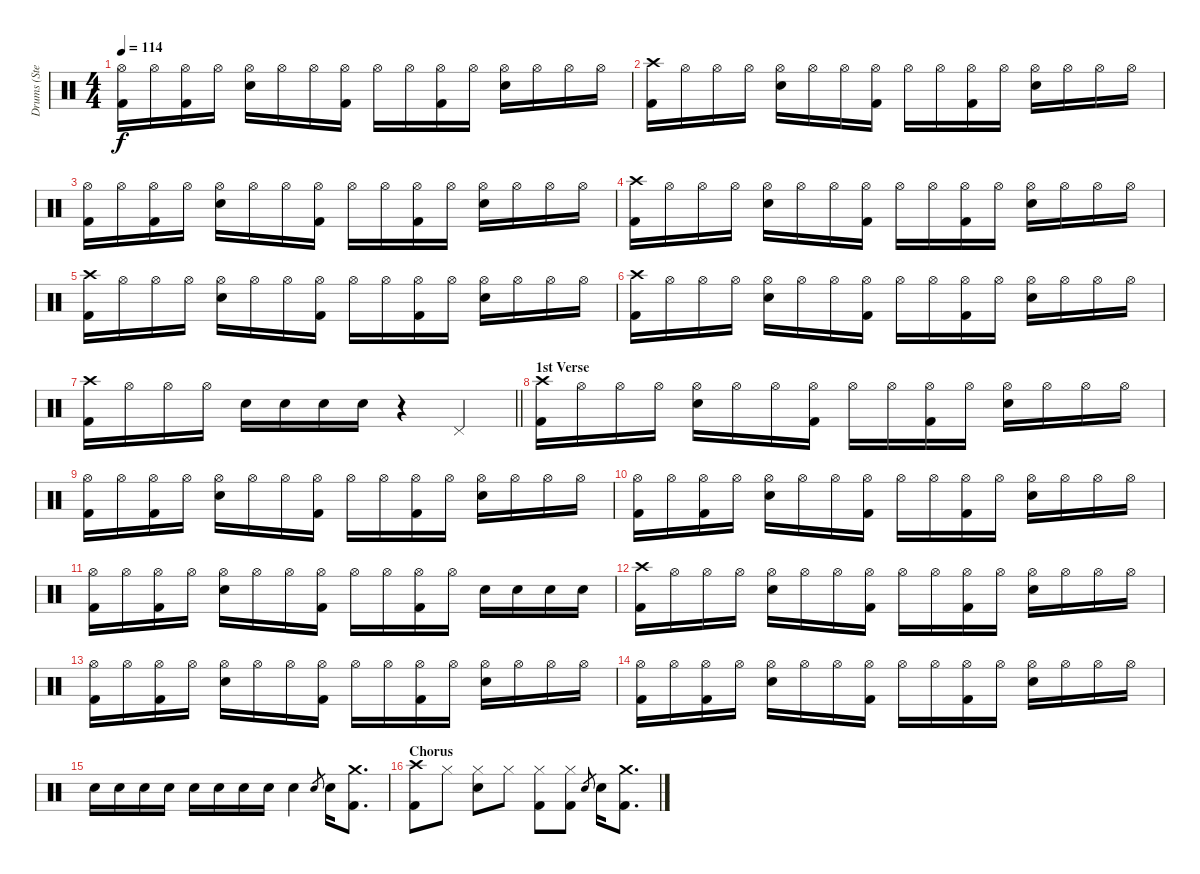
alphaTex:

\track ("Drums (Steven)" "Drums (Ste") {instrument percussion}
\staff {score}
\articulation defaults
\ts (4 4)
\tempo 114
\clef neutral
\ks c
("Hi-Hat (open)" "Kick (hit) 2").16{dy f} "Hi-Hat (open)".16 ("Hi-Hat (open)" "Kick (hit) 2").16 "Hi-Hat (open)".16 ("Hi-Hat (open)" "Snare (hit) 2").16 "Hi-Hat (open)".16 "Hi-Hat (open)".16 ("Hi-Hat (open)" "Kick (hit) 2").16 "Hi-Hat (open)".16 "Hi-Hat (open)".16 ("Hi-Hat (open)" "Kick (hit) 2").16 "Hi-Hat (open)".16 ("Hi-Hat (open)" "Snare (hit) 2").16 "Hi-Hat (open)".16 "Hi-Hat (open)".16 "Hi-Hat (open)".16 |
("Crash high (hit)" "Kick (hit) 2").16 "Hi-Hat (open)".16 "Hi-Hat (open)".16 "Hi-Hat (open)".16 ("Hi-Hat (open)" "Snare (hit) 2").16 "Hi-Hat (open)".16 "Hi-Hat (open)".16 ("Hi-Hat (open)" "Kick (hit) 2").16 "Hi-Hat (open)".16 "Hi-Hat (open)".16 ("Hi-Hat (open)" "Kick (hit) 2").16 "Hi-Hat (open)".16 ("Hi-Hat (open)" "Snare (hit) 2").16 "Hi-Hat (open)".16 "Hi-Hat (open)".16 "Hi-Hat (open)".16 |
("Hi-Hat (open)" "Kick (hit) 2").16 "Hi-Hat (open)".16 ("Hi-Hat (open)" "Kick (hit) 2").16 "Hi-Hat (open)".16 ("Hi-Hat (open)" "Snare (hit) 2").16 "Hi-Hat (open)".16 "Hi-Hat (open)".16 ("Hi-Hat (open)" "Kick (hit) 2").16 "Hi-Hat (open)".16 "Hi-Hat (open)".16 ("Hi-Hat (open)" "Kick (hit) 2").16 "Hi-Hat (open)".16 ("Hi-Hat (open)" "Snare (hit) 2").16 "Hi-Hat (open)".16 "Hi-Hat (open)".16 "Hi-Hat (open)".16 |
("Crash high (hit)" "Kick (hit) 2").16 "Hi-Hat (open)".16 "Hi-Hat (open)".16 "Hi-Hat (open)".16 ("Hi-Hat (open)" "Snare (hit) 2").16 "Hi-Hat (open)".16 "Hi-Hat (open)".16 ("Hi-Hat (open)" "Kick (hit) 2").16 "Hi-Hat (open)".16 "Hi-Hat (open)".16 ("Hi-Hat (open)" "Kick (hit) 2").16 "Hi-Hat (open)".16 ("Hi-Hat (open)" "Snare (hit) 2").16 "Hi-Hat (open)".16 "Hi-Hat (open)".16 "Hi-Hat (open)".16 |
("Crash high (hit)" "Kick (hit) 2").16 "Hi-Hat (open)".16 "Hi-Hat (open)".16 "Hi-Hat (open)".16 ("Hi-Hat (open)" "Snare (hit) 2").16 "Hi-Hat (open)".16 "Hi-Hat (open)".16 ("Hi-Hat (open)" "Kick (hit) 2").16 "Hi-Hat (open)".16 "Hi-Hat (open)".16 ("Hi-Hat (open)" "Kick (hit) 2").16 "Hi-Hat (open)".16 ("Hi-Hat (open)" "Snare (hit) 2").16 "Hi-Hat (open)".16 "Hi-Hat (open)".16 "Hi-Hat (open)".16 |
("Crash high (hit)" "Kick (hit) 2").16 "Hi-Hat (open)".16 "Hi-Hat (open)".16 "Hi-Hat (open)".16 ("Hi-Hat (open)" "Snare (hit) 2").16 "Hi-Hat (open)".16 "Hi-Hat (open)".16 ("Hi-Hat (open)" "Kick (hit) 2").16 "Hi-Hat (open)".16 "Hi-Hat (open)".16 ("Hi-Hat (open)" "Kick (hit) 2").16 "Hi-Hat (open)".16 ("Hi-Hat (open)" "Snare (hit) 2").16 "Hi-Hat (open)".16 "Hi-Hat (open)".16 "Hi-Hat (open)".16 |
\barLineRight lightlight
("Crash high (hit)" "Kick (hit) 2").16 "Hi-Hat (open)".16 "Hi-Hat (open)".16 "Hi-Hat (open)".16 "Snare (hit) 2".16 "Snare (hit) 2".16 "Snare (hit) 2".16 "Snare (hit) 2".16 r.4 "Pedal Hi-Hat (hit)".4 |
\section ("" "1st Verse")
("Crash high (hit)" "Kick (hit) 2").16 "Hi-Hat (open)".16 "Hi-Hat (open)".16 "Hi-Hat (open)".16 ("Hi-Hat (open)" "Snare (hit) 2").16 "Hi-Hat (open)".16 "Hi-Hat (open)".16 ("Hi-Hat (open)" "Kick (hit) 2").16 "Hi-Hat (open)".16 "Hi-Hat (open)".16 ("Hi-Hat (open)" "Kick (hit) 2").16 "Hi-Hat (open)".16 ("Hi-Hat (open)" "Snare (hit) 2").16 "Hi-Hat (open)".16 "Hi-Hat (open)".16 "Hi-Hat (open)".16 |
("Hi-Hat (open)" "Kick (hit) 2").16 "Hi-Hat (open)".16 ("Hi-Hat (open)" "Kick (hit) 2").16 "Hi-Hat (open)".16 ("Hi-Hat (open)" "Snare (hit) 2").16 "Hi-Hat (open)".16 "Hi-Hat (open)".16 ("Hi-Hat (open)" "Kick (hit) 2").16 "Hi-Hat (open)".16 "Hi-Hat (open)".16 ("Hi-Hat (open)" "Kick (hit) 2").16 "Hi-Hat (open)".16 ("Hi-Hat (open)" "Snare (hit) 2").16 "Hi-Hat (open)".16 "Hi-Hat (open)".16 "Hi-Hat (open)".16 |
("Hi-Hat (open)" "Kick (hit) 2").16 "Hi-Hat (open)".16 ("Hi-Hat (open)" "Kick (hit) 2").16 "Hi-Hat (open)".16 ("Hi-Hat (open)" "Snare (hit) 2").16 "Hi-Hat (open)".16 "Hi-Hat (open)".16 ("Hi-Hat (open)" "Kick (hit) 2").16 "Hi-Hat (open)".16 "Hi-Hat (open)".16 ("Hi-Hat (open)" "Kick (hit) 2").16 "Hi-Hat (open)".16 ("Hi-Hat (open)" "Snare (hit) 2").16 "Hi-Hat (open)".16 "Hi-Hat (open)".16 "Hi-Hat (open)".16 |
("Hi-Hat (open)" "Kick (hit) 2").16 "Hi-Hat (open)".16 ("Hi-Hat (open)" "Kick (hit) 2").16 "Hi-Hat (open)".16 ("Hi-Hat (open)" "Snare (hit) 2").16 "Hi-Hat (open)".16 "Hi-Hat (open)".16 ("Hi-Hat (open)" "Kick (hit) 2").16 "Hi-Hat (open)".16 "Hi-Hat (open)".16 ("Hi-Hat (open)" "Kick (hit) 2").16 "Hi-Hat (open)".16 "Snare (hit) 2".16 "Snare (hit) 2".16 "Snare (hit) 2".16 "Snare (hit) 2".16 |
("Crash high (hit)" "Kick (hit) 2").16 "Hi-Hat (open)".16 "Hi-Hat (open)".16 "Hi-Hat (open)".16 ("Hi-Hat (open)" "Snare (hit) 2").16 "Hi-Hat (open)".16 "Hi-Hat (open)".16 ("Hi-Hat (open)" "Kick (hit) 2").16 "Hi-Hat (open)".16 "Hi-Hat (open)".16 ("Hi-Hat (open)" "Kick (hit) 2").16 "Hi-Hat (open)".16 ("Hi-Hat (open)" "Snare (hit) 2").16 "Hi-Hat (open)".16 "Hi-Hat (open)".16 "Hi-Hat (open)".16 |
("Hi-Hat (open)" "Kick (hit) 2").16 "Hi-Hat (open)".16 ("Hi-Hat (open)" "Kick (hit) 2").16 "Hi-Hat (open)".16 ("Hi-Hat (open)" "Snare (hit) 2").16 "Hi-Hat (open)".16 "Hi-Hat (open)".16 ("Hi-Hat (open)" "Kick (hit) 2").16 "Hi-Hat (open)".16 "Hi-Hat (open)".16 ("Hi-Hat (open)" "Kick (hit) 2").16 "Hi-Hat (open)".16 ("Hi-Hat (open)" "Snare (hit) 2").16 "Hi-Hat (open)".16 "Hi-Hat (open)".16 "Hi-Hat (open)".16 |
("Hi-Hat (open)" "Kick (hit) 2").16 "Hi-Hat (open)".16 ("Hi-Hat (open)" "Kick (hit) 2").16 "Hi-Hat (open)".16 ("Hi-Hat (open)" "Snare (hit) 2").16 "Hi-Hat (open)".16 "Hi-Hat (open)".16 ("Hi-Hat (open)" "Kick (hit) 2").16 "Hi-Hat (open)".16 "Hi-Hat (open)".16 ("Hi-Hat (open)" "Kick (hit) 2").16 "Hi-Hat (open)".16 ("Hi-Hat (open)" "Snare (hit) 2").16 "Hi-Hat (open)".16 "Hi-Hat (open)".16 "Hi-Hat (open)".16 |
"Snare (hit) 2".16 "Snare (hit) 2".16 "Snare (hit) 2".16 "Snare (hit) 2".16 "Snare (hit) 2".16 "Snare (hit) 2".16 "Snare (hit) 2".16 "Snare (hit) 2".16 "Snare (hit) 2".4 "Snare (hit) 2".8{gr} "Snare (hit) 2".16 ("Crash medium (hit)" "Kick (hit) 2").8{d} |
\section ("" "Chorus")
("Crash high (hit)" "Kick (hit) 2").8 "Hi-Hat (closed)".8 ("Hi-Hat (closed)" "Snare (hit) 2").8 "Hi-Hat (closed)".8 ("Hi-Hat (closed)" "Kick (hit) 2").8 ("Hi-Hat (closed)" "Kick (hit) 2").8 "Snare (hit) 2".8{gr} "Snare (hit) 2".16 ("Crash medium (hit)" "Kick (hit) 2").8{d}
